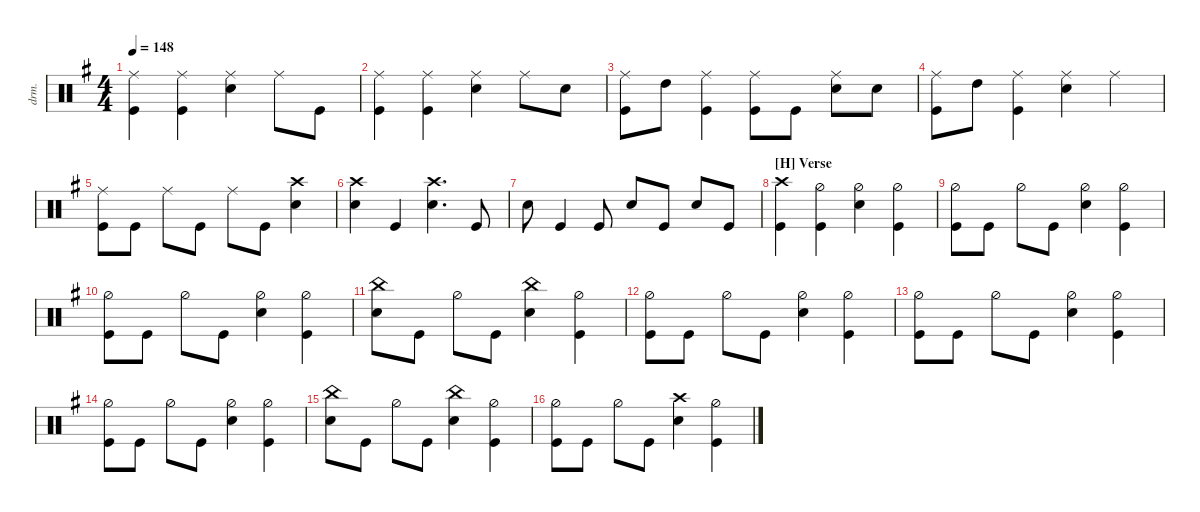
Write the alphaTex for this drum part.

\defaultSystemsLayout 4
\hideDynamics
\bracketExtendMode nobrackets
\otherSystemsTrackNameOrientation horizontal
\track ("Drums" "drm.") {multiBarRest instrument percussion}
\staff
\articulation defaults
\ts (4 4)
\tempo 148
\clef neutral
\ks eminor
("Ride (middle)"{acc forcenatural} "Kick (hit)"{acc forcenatural}).4{dy mf beam Down} ("Kick (hit)"{acc forcenatural} "Ride (middle)"{acc forcenatural}).4{beam Down} ("Ride (middle)"{acc forcenatural} "Snare (hit) 2"{acc forcenatural}).4{beam Down} "Ride (middle)"{acc forcenatural}.8{beam Down} "Kick (hit)"{acc forcenatural}.8{beam Down} |
("Ride (middle)"{acc forcenatural} "Kick (hit)"{acc forcenatural}).4{beam Down} ("Kick (hit)"{acc forcenatural} "Ride (middle)"{acc forcenatural}).4{beam Down} ("Ride (middle)"{acc forcenatural} "Snare (hit) 2"{acc forcenatural}).4{beam Down} "Ride (middle)"{acc forcenatural}.8{beam Down} "Snare (hit) 2"{acc forcenatural}.8{beam Down} |
("Kick (hit)"{acc forcenatural} "Ride (middle)"{acc forcenatural}).8{beam Down} "High Tom (hit)"{acc forcenatural}.8{beam Down} ("Kick (hit)"{acc forcenatural} "Ride (middle)"{acc forcenatural}).4{beam Down} ("Kick (hit)"{acc forcenatural} "Ride (middle)"{acc forcenatural}).8{beam Down} "Kick (hit)"{acc forcenatural}.8{beam Down} ("Ride (middle)"{acc forcenatural} "Snare (hit) 2"{acc forcenatural}).8{beam Down} "Snare (hit) 2"{acc forcenatural}.8{beam Down} |
("Kick (hit)"{acc forcenatural} "Ride (middle)"{acc forcenatural}).8{beam Down} "High Tom (hit)"{acc forcenatural}.8{beam Down} ("Kick (hit)"{acc forcenatural} "Ride (middle)"{acc forcenatural}).4{beam Down} ("Snare (hit) 2"{acc forcenatural} "Ride (middle)"{acc forcenatural}).4{beam Down} "Ride (middle)"{acc forcenatural}.4{beam Down} |
("Ride (middle)"{acc forcenatural} "Kick (hit)"{acc forcenatural}).8{beam Down} "Kick (hit)"{acc forcenatural}.8{beam Down} "Ride (middle)"{acc forcenatural}.8{beam Down} "Kick (hit)"{acc forcenatural}.8{beam Down} "Ride (middle)"{acc forcenatural}.8{beam Down} "Kick (hit)"{acc forcenatural}.8{beam Down} ("Snare (hit) 2"{acc forcenatural} "Crash high (hit)"{acc forcenatural}).4{beam Down} |
("Crash high (hit)"{acc forcenatural} "Snare (hit) 2"{acc forcenatural}).4{beam Down} "Kick (hit)"{acc forcenatural}.4{beam Up} ("Crash high (hit)"{acc forcenatural} "Snare (hit) 2"{acc forcenatural}).4{d beam Down} "Kick (hit)"{acc forcenatural}.8{beam Up} |
"Snare (hit) 2"{acc forcenatural}.8{beam Down} "Kick (hit)"{acc forcenatural}.4{beam Up} "Kick (hit)"{acc forcenatural}.8{beam Up} "Snare (hit) 2"{acc forcenatural}.8{beam Up} "Kick (hit)"{acc forcenatural}.8{beam Up} "Snare (hit) 2"{acc forcenatural}.8{beam Up} "Kick (hit)"{acc forcenatural}.8{beam Up} |
\section ("H" "Verse")
("Kick (hit)"{acc forcenatural} "Crash high (hit)"{acc forcenatural}).4{beam Down} ("Hi-Hat (half)"{acc forcenatural} "Kick (hit)"{acc forcenatural}).4{beam Down} ("Snare (hit) 2"{acc forcenatural} "Hi-Hat (half)"{acc forcenatural}).4{beam Down} ("Hi-Hat (half)"{acc forcenatural} "Kick (hit)"{acc forcenatural}).4{beam Down} |
("Kick (hit)"{acc forcenatural} "Hi-Hat (half)"{acc forcenatural}).8{beam Down} "Kick (hit)"{acc forcenatural}.8{beam Down} "Hi-Hat (half)"{acc forcenatural}.8{beam Down} "Kick (hit)"{acc forcenatural}.8{beam Down} ("Hi-Hat (half)"{acc forcenatural} "Snare (hit) 2"{acc forcenatural}).4{beam Down} ("Hi-Hat (half)"{acc forcenatural} "Kick (hit)"{acc forcenatural}).4{beam Down} |
("Kick (hit)"{acc forcenatural} "Hi-Hat (half)"{acc forcenatural}).8{beam Down} "Kick (hit)"{acc forcenatural}.8{beam Down} "Hi-Hat (half)"{acc forcenatural}.8{beam Down} "Kick (hit)"{acc forcenatural}.8{beam Down} ("Hi-Hat (half)"{acc forcenatural} "Snare (hit) 2"{acc forcenatural}).4{beam Down} ("Hi-Hat (half)"{acc forcenatural} "Kick (hit)"{acc forcenatural}).4{beam Down} |
("Snare (hit) 2"{acc forcenatural} "China (hit)"{acc forcenatural}).8{beam Down} "Kick (hit)"{acc forcenatural}.8{beam Down} "Hi-Hat (half)"{acc forcenatural}.8{beam Down} "Kick (hit)"{acc forcenatural}.8{beam Down} ("Snare (hit) 2"{acc forcenatural} "China (hit)"{acc forcenatural}).4{beam Down} ("Kick (hit)"{acc forcenatural} "Hi-Hat (half)"{acc forcenatural}).4{beam Down} |
("Kick (hit)"{acc forcenatural} "Hi-Hat (half)"{acc forcenatural}).8{beam Down} "Kick (hit)"{acc forcenatural}.8{beam Down} "Hi-Hat (half)"{acc forcenatural}.8{beam Down} "Kick (hit)"{acc forcenatural}.8{beam Down} ("Hi-Hat (half)"{acc forcenatural} "Snare (hit) 2"{acc forcenatural}).4{beam Down} ("Hi-Hat (half)"{acc forcenatural} "Kick (hit)"{acc forcenatural}).4{beam Down} |
("Kick (hit)"{acc forcenatural} "Hi-Hat (half)"{acc forcenatural}).8{beam Down} "Kick (hit)"{acc forcenatural}.8{beam Down} "Hi-Hat (half)"{acc forcenatural}.8{beam Down} "Kick (hit)"{acc forcenatural}.8{beam Down} ("Hi-Hat (half)"{acc forcenatural} "Snare (hit) 2"{acc forcenatural}).4{beam Down} ("Hi-Hat (half)"{acc forcenatural} "Kick (hit)"{acc forcenatural}).4{beam Down} |
("Kick (hit)"{acc forcenatural} "Hi-Hat (half)"{acc forcenatural}).8{beam Down} "Kick (hit)"{acc forcenatural}.8{beam Down} "Hi-Hat (half)"{acc forcenatural}.8{beam Down} "Kick (hit)"{acc forcenatural}.8{beam Down} ("Hi-Hat (half)"{acc forcenatural} "Snare (hit) 2"{acc forcenatural}).4{beam Down} ("Hi-Hat (half)"{acc forcenatural} "Kick (hit)"{acc forcenatural}).4{beam Down} |
("Snare (hit) 2"{acc forcenatural} "China (hit)"{acc forcenatural}).8{beam Down} "Kick (hit)"{acc forcenatural}.8{beam Down} "Hi-Hat (half)"{acc forcenatural}.8{beam Down} "Kick (hit)"{acc forcenatural}.8{beam Down} ("Snare (hit) 2"{acc forcenatural} "China (hit)"{acc forcenatural}).4{beam Down} ("Kick (hit)"{acc forcenatural} "Hi-Hat (half)"{acc forcenatural}).4{beam Down} |
("Kick (hit)"{acc forcenatural} "Hi-Hat (half)"{acc forcenatural}).8{beam Down} "Kick (hit)"{acc forcenatural}.8{beam Down} "Hi-Hat (half)"{acc forcenatural}.8{beam Down} "Kick (hit)"{acc forcenatural}.8{beam Down} ("Snare (hit) 2"{acc forcenatural} "Crash high (hit)"{acc forcenatural}).4{beam Down} ("Hi-Hat (half)"{acc forcenatural} "Kick (hit)"{acc forcenatural}).4{beam Down}
